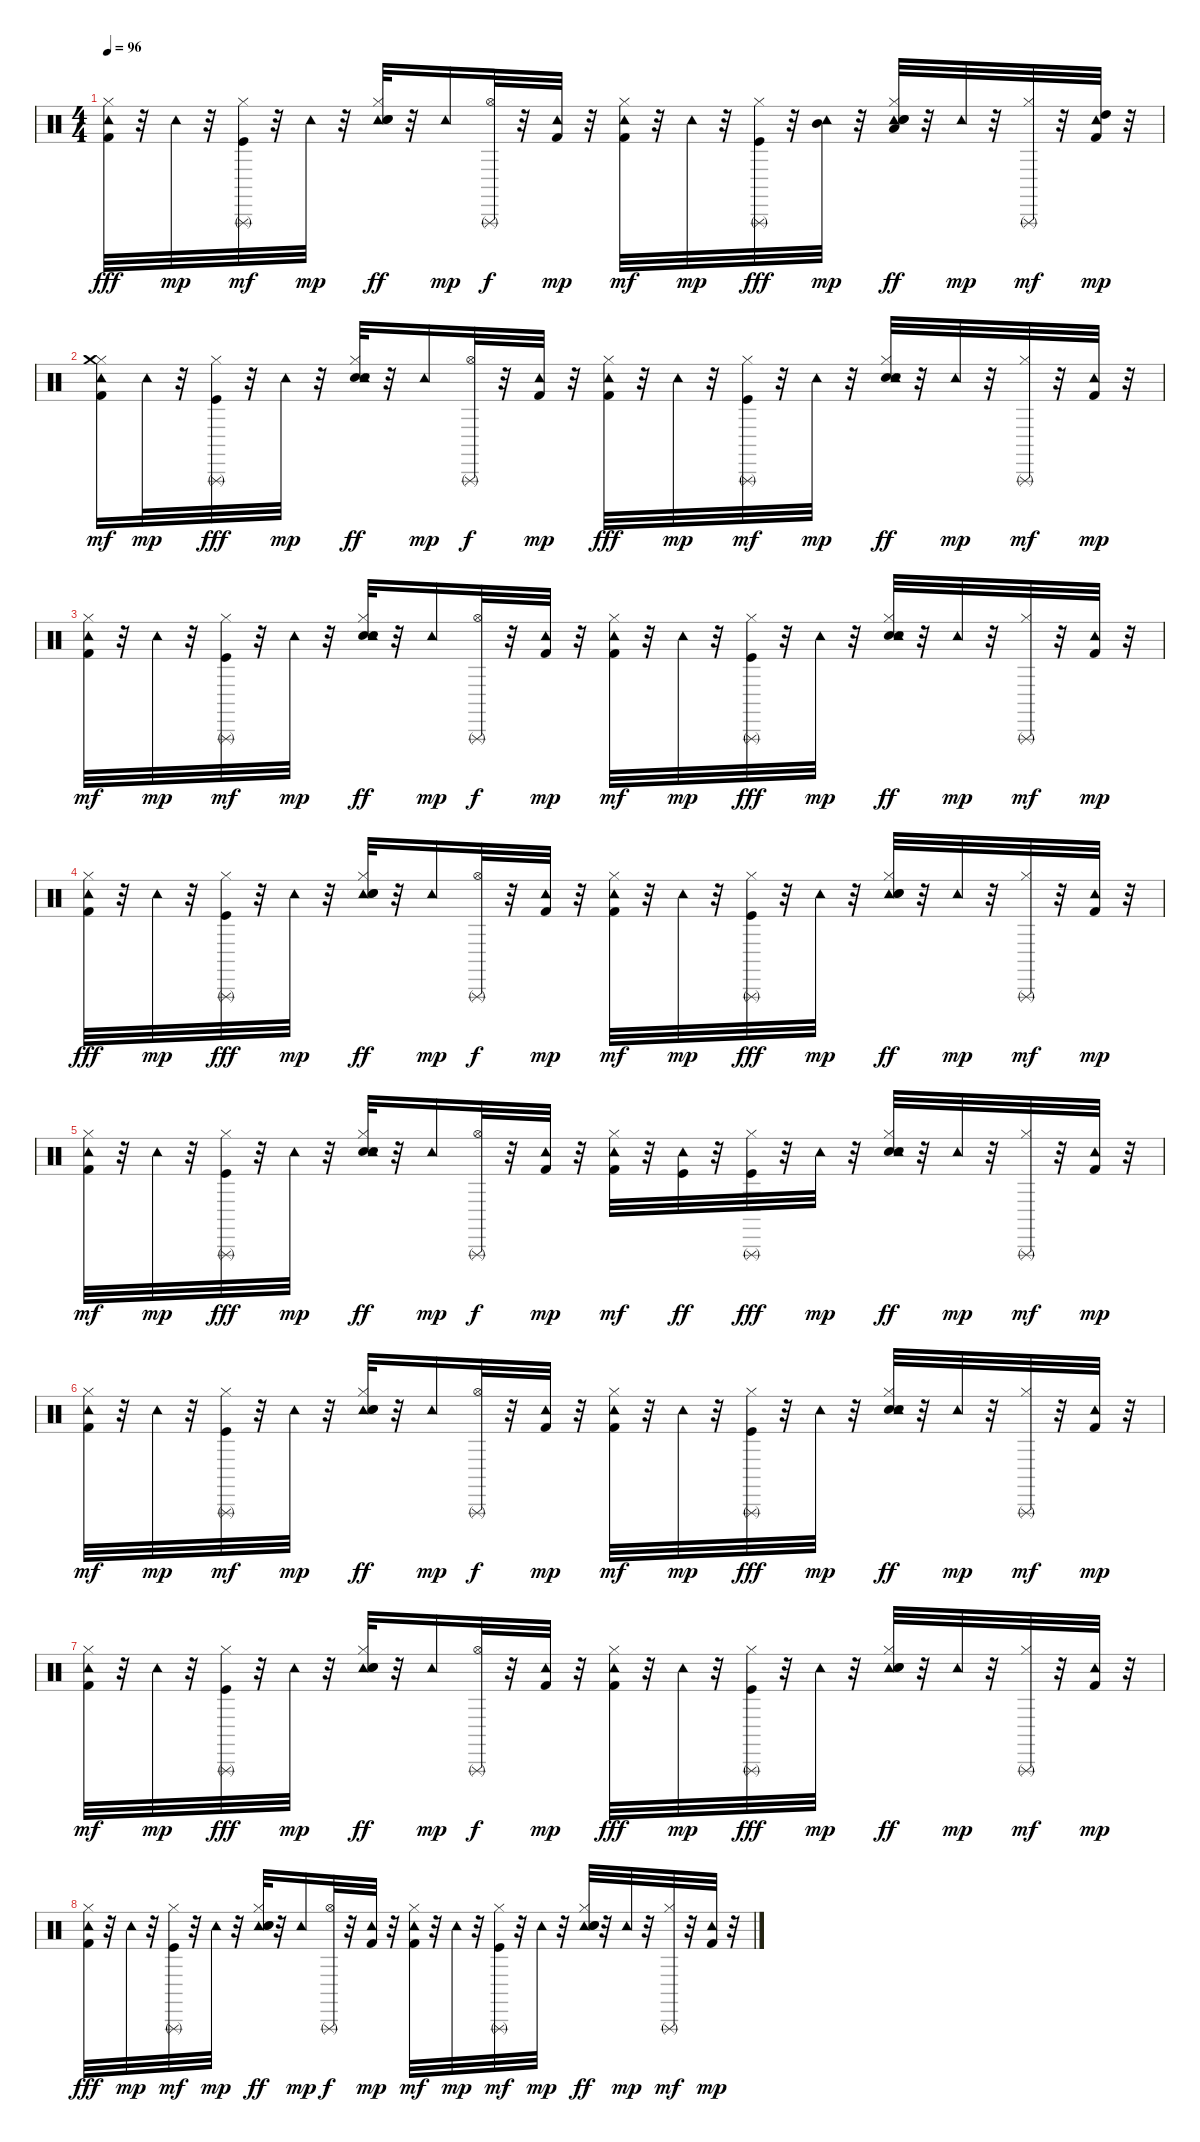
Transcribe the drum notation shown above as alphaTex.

\track "" {instrument percussion}
\staff {score}
\articulation defaults
\ts (4 4)
\tempo 96
\clef neutral
\ks c
("Tambourine (hit)" "Hi-Hat (closed)" "Kick (hit) 2").32{dy fff} r.32 "Tambourine (hit)".32{dy mp} r.32 ("Triangle (rnute)" "Kick (hit)" "Hi-Hat (closed)").32{dy mf} r.32 "Tambourine (hit)".32{dy mp} r.32 ("Tambourine (hit)" "Snare (hit) 2" "Hi-Hat (closed)" "Hand Clap (hit)").32{dy ff} r.32 "Tambourine (hit)".16{dy mp} ("Triangle (rnute)" "Hi-Hat (open)").32{dy f} r.32 ("Kick (hit) 2" "Tambourine (hit)").32{dy mp} r.32 ("Kick (hit) 2" "Tambourine (hit)" "Hi-Hat (closed)").32{dy mf} r.32 "Tambourine (hit)".32{dy mp} r.32 ("Hi-Hat (closed)" "Kick (hit)" "Triangle (rnute)").32{dy fff} r.32 ("Mid Tom (hit)" "Tambourine (hit)").32{dy mp} r.32 ("Hi-Hat (closed)" "Tambourine (hit)" "Snare (hit) 2" "Low Tom (hit)" "Hand Clap (hit)").32{dy ff} r.32 "Tambourine (hit)".32{dy mp} r.32 ("Hi-Hat (closed)" "Triangle (rnute)").32{dy mf} r.32 ("Kick (hit) 2" "High Tom (hit)" "Tambourine (hit)").32{dy mp} r.32 |
("Kick (hit) 2" "Hi-Hat (closed)" "Crash medium (hit)" "Tambourine (hit)").16{dy mf} "Tambourine (hit)".32{dy mp} r.32 ("Triangle (rnute)" "Hi-Hat (closed)" "Kick (hit)").32{dy fff} r.32 "Tambourine (hit)".32{dy mp} r.32 ("Snare (hit) 2" "Tambourine (hit)" "Hi-Hat (closed)" "Hand Clap (hit)").32{dy ff} r.32 "Tambourine (hit)".16{dy mp} ("Hi-Hat (open)" "Triangle (rnute)").32{dy f} r.32 ("Kick (hit) 2" "Tambourine (hit)").32{dy mp} r.32 ("Tambourine (hit)" "Hi-Hat (closed)" "Kick (hit) 2").32{dy fff} r.32 "Tambourine (hit)".32{dy mp} r.32 ("Kick (hit)" "Hi-Hat (closed)" "Triangle (rnute)").32{dy mf} r.32 "Tambourine (hit)".32{dy mp} r.32 ("Hi-Hat (closed)" "Snare (hit) 2" "Tambourine (hit)" "Hand Clap (hit)").32{dy ff} r.32 "Tambourine (hit)".32{dy mp} r.32 ("Hi-Hat (closed)" "Triangle (rnute)").32{dy mf} r.32 ("Tambourine (hit)" "Kick (hit) 2").32{dy mp} r.32 |
("Kick (hit) 2" "Hi-Hat (closed)" "Tambourine (hit)").32{dy mf} r.32 "Tambourine (hit)".32{dy mp} r.32 ("Kick (hit)" "Triangle (rnute)" "Hi-Hat (closed)").32{dy mf} r.32 "Tambourine (hit)".32{dy mp} r.32 ("Snare (hit) 2" "Tambourine (hit)" "Hi-Hat (closed)" "Hand Clap (hit)").32{dy ff} r.32 "Tambourine (hit)".16{dy mp} ("Triangle (rnute)" "Hi-Hat (open)").32{dy f} r.32 ("Tambourine (hit)" "Kick (hit) 2").32{dy mp} r.32 ("Kick (hit) 2" "Tambourine (hit)" "Hi-Hat (closed)").32{dy mf} r.32 "Tambourine (hit)".32{dy mp} r.32 ("Hi-Hat (closed)" "Kick (hit)" "Triangle (rnute)").32{dy fff} r.32 "Tambourine (hit)".32{dy mp} r.32 ("Hi-Hat (closed)" "Snare (hit) 2" "Tambourine (hit)" "Hand Clap (hit)").32{dy ff} r.32 "Tambourine (hit)".32{dy mp} r.32 ("Triangle (rnute)" "Hi-Hat (closed)").32{dy mf} r.32 ("Tambourine (hit)" "Kick (hit) 2").32{dy mp} r.32 |
("Hi-Hat (closed)" "Tambourine (hit)" "Kick (hit) 2").32{dy fff} r.32 "Tambourine (hit)".32{dy mp} r.32 ("Hi-Hat (closed)" "Kick (hit)" "Triangle (rnute)").32{dy fff} r.32 "Tambourine (hit)".32{dy mp} r.32 ("Hi-Hat (closed)" "Tambourine (hit)" "Snare (hit) 2" "Hand Clap (hit)").32{dy ff} r.32 "Tambourine (hit)".16{dy mp} ("Triangle (rnute)" "Hi-Hat (open)").32{dy f} r.32 ("Tambourine (hit)" "Kick (hit) 2").32{dy mp} r.32 ("Kick (hit) 2" "Tambourine (hit)" "Hi-Hat (closed)").32{dy mf} r.32 "Tambourine (hit)".32{dy mp} r.32 ("Triangle (rnute)" "Hi-Hat (closed)" "Kick (hit)").32{dy fff} r.32 "Tambourine (hit)".32{dy mp} r.32 ("Tambourine (hit)" "Hi-Hat (closed)" "Snare (hit) 2" "Hand Clap (hit)").32{dy ff} r.32 "Tambourine (hit)".32{dy mp} r.32 ("Triangle (rnute)" "Hi-Hat (closed)").32{dy mf} r.32 ("Tambourine (hit)" "Kick (hit) 2").32{dy mp} r.32 |
("Hi-Hat (closed)" "Kick (hit) 2" "Tambourine (hit)").32{dy mf} r.32 "Tambourine (hit)".32{dy mp} r.32 ("Triangle (rnute)" "Hi-Hat (closed)" "Kick (hit)").32{dy fff} r.32 "Tambourine (hit)".32{dy mp} r.32 ("Snare (hit) 2" "Hi-Hat (closed)" "Tambourine (hit)" "Hand Clap (hit)").32{dy ff} r.32 "Tambourine (hit)".16{dy mp} ("Triangle (rnute)" "Hi-Hat (open)").32{dy f} r.32 ("Kick (hit) 2" "Tambourine (hit)").32{dy mp} r.32 ("Kick (hit) 2" "Hi-Hat (closed)" "Tambourine (hit)").32{dy mf} r.32 ("Tambourine (hit)" "Kick (hit)").32{dy ff} r.32 ("Hi-Hat (closed)" "Kick (hit)" "Triangle (rnute)").32{dy fff} r.32 "Tambourine (hit)".32{dy mp} r.32 ("Hi-Hat (closed)" "Snare (hit) 2" "Tambourine (hit)" "Hand Clap (hit)").32{dy ff} r.32 "Tambourine (hit)".32{dy mp} r.32 ("Hi-Hat (closed)" "Triangle (rnute)").32{dy mf} r.32 ("Kick (hit) 2" "Tambourine (hit)").32{dy mp} r.32 |
("Kick (hit) 2" "Hi-Hat (closed)" "Tambourine (hit)").32{dy mf} r.32 "Tambourine (hit)".32{dy mp} r.32 ("Triangle (rnute)" "Kick (hit)" "Hi-Hat (closed)").32{dy mf} r.32 "Tambourine (hit)".32{dy mp} r.32 ("Tambourine (hit)" "Snare (hit) 2" "Hi-Hat (closed)" "Hand Clap (hit)").32{dy ff} r.32 "Tambourine (hit)".16{dy mp} ("Triangle (rnute)" "Hi-Hat (open)").32{dy f} r.32 ("Tambourine (hit)" "Kick (hit) 2").32{dy mp} r.32 ("Hi-Hat (closed)" "Kick (hit) 2" "Tambourine (hit)").32{dy mf} r.32 "Tambourine (hit)".32{dy mp} r.32 ("Hi-Hat (closed)" "Triangle (rnute)" "Kick (hit)").32{dy fff} r.32 "Tambourine (hit)".32{dy mp} r.32 ("Hi-Hat (closed)" "Snare (hit) 2" "Tambourine (hit)" "Hand Clap (hit)").32{dy ff} r.32 "Tambourine (hit)".32{dy mp} r.32 ("Hi-Hat (closed)" "Triangle (rnute)").32{dy mf} r.32 ("Kick (hit) 2" "Tambourine (hit)").32{dy mp} r.32 |
("Hi-Hat (closed)" "Kick (hit) 2" "Tambourine (hit)").32{dy mf} r.32 "Tambourine (hit)".32{dy mp} r.32 ("Hi-Hat (closed)" "Triangle (rnute)" "Kick (hit)").32{dy fff} r.32 "Tambourine (hit)".32{dy mp} r.32 ("Hi-Hat (closed)" "Tambourine (hit)" "Snare (hit) 2" "Hand Clap (hit)").32{dy ff} r.32 "Tambourine (hit)".16{dy mp} ("Triangle (rnute)" "Hi-Hat (open)").32{dy f} r.32 ("Tambourine (hit)" "Kick (hit) 2").32{dy mp} r.32 ("Tambourine (hit)" "Kick (hit) 2" "Hi-Hat (closed)").32{dy fff} r.32 "Tambourine (hit)".32{dy mp} r.32 ("Hi-Hat (closed)" "Kick (hit)" "Triangle (rnute)").32{dy fff} r.32 "Tambourine (hit)".32{dy mp} r.32 ("Hi-Hat (closed)" "Tambourine (hit)" "Snare (hit) 2" "Hand Clap (hit)").32{dy ff} r.32 "Tambourine (hit)".32{dy mp} r.32 ("Hi-Hat (closed)" "Triangle (rnute)").32{dy mf} r.32 ("Kick (hit) 2" "Tambourine (hit)").32{dy mp} r.32 |
("Tambourine (hit)" "Kick (hit) 2" "Hi-Hat (closed)").32{dy fff} r.32 "Tambourine (hit)".32{dy mp} r.32 ("Triangle (rnute)" "Kick (hit)" "Hi-Hat (closed)").32{dy mf} r.32 "Tambourine (hit)".32{dy mp} r.32 ("Tambourine (hit)" "Snare (hit) 2" "Hi-Hat (closed)" "Hand Clap (hit)").32{dy ff} r.32 "Tambourine (hit)".16{dy mp} ("Hi-Hat (open)" "Triangle (rnute)").32{dy f} r.32 ("Tambourine (hit)" "Kick (hit) 2").32{dy mp} r.32 ("Kick (hit) 2" "Tambourine (hit)" "Hi-Hat (closed)").32{dy mf} r.32 "Tambourine (hit)".32{dy mp} r.32 ("Triangle (rnute)" "Kick (hit)" "Hi-Hat (closed)").32{dy mf} r.32 "Tambourine (hit)".32{dy mp} r.32 ("Tambourine (hit)" "Hi-Hat (closed)" "Snare (hit) 2" "Hand Clap (hit)").32{dy ff} r.32 "Tambourine (hit)".32{dy mp} r.32 ("Triangle (rnute)" "Hi-Hat (closed)").32{dy mf} r.32 ("Tambourine (hit)" "Kick (hit) 2").32{dy mp} r.32
